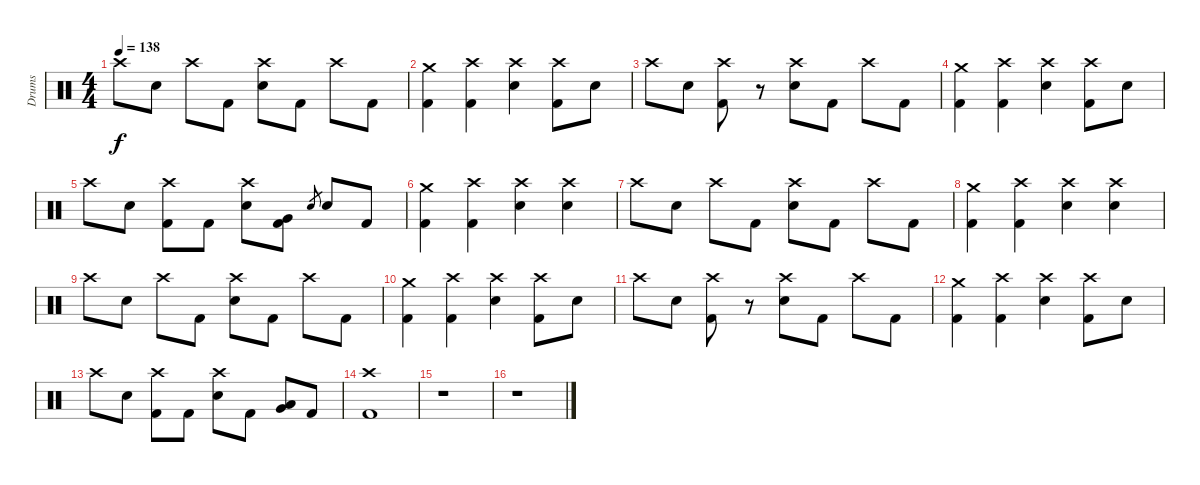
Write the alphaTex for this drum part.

\track ("Drums" "Drums") {instrument percussion}
\staff {score}
\articulation defaults
\ts (4 4)
\tempo 138
\clef neutral
\ks c "Crash high (hit)".8{dy f} "Electric Snare (hit)".8 "Crash high (hit)".8 "Kick (hit) 2".8
("Crash high (hit)" "Electric Snare (hit)").8 "Kick (hit) 2".8 "Crash high (hit)".8 "Kick (hit) 2".8 |
("Crash medium (hit)" "Kick (hit) 2").4 ("Crash high (hit)" "Kick (hit) 2").4 ("Crash high (hit)" "Electric Snare (hit)").4 ("Crash high (hit)" "Kick (hit) 2").8 "Electric Snare (hit)".8 |
"Crash high (hit)".8 "Electric Snare (hit)".8 ("Crash high (hit)" "Kick (hit) 2").8 r.8 ("Crash high (hit)" "Electric Snare (hit)").8 "Kick (hit) 2".8 "Crash high (hit)".8 "Kick (hit) 2".8 |
("Crash medium (hit)" "Kick (hit) 2").4 ("Crash high (hit)" "Kick (hit) 2").4 ("Crash high (hit)" "Electric Snare (hit)").4 ("Crash high (hit)" "Kick (hit) 2").8 "Electric Snare (hit)".8 |
"Crash high (hit)".8 "Electric Snare (hit)".8 ("Crash high (hit)" "Kick (hit) 2").8 "Kick (hit) 2".8 ("Crash high (hit)" "Electric Snare (hit)").8 ("Very Low Tom (hit)" "Kick (hit) 2").8 "Electric Snare (hit)".8{gr} "Electric Snare (hit)".8 "Kick (hit) 2".8 |
("Crash medium (hit)" "Kick (hit) 2").4 ("Crash high (hit)" "Kick (hit) 2").4 ("Crash high (hit)" "Electric Snare (hit)").4 ("Crash high (hit)" "Electric Snare (hit)").4 |
"Crash high (hit)".8 "Electric Snare (hit)".8 "Crash high (hit)".8 "Kick (hit) 2".8 ("Crash high (hit)" "Electric Snare (hit)").8 "Kick (hit) 2".8 "Crash high (hit)".8 "Kick (hit) 2".8 |
("Crash medium (hit)" "Kick (hit) 2").4 ("Crash high (hit)" "Kick (hit) 2").4 ("Crash high (hit)" "Electric Snare (hit)").4 ("Crash high (hit)" "Electric Snare (hit)").4 |
"Crash high (hit)".8 "Electric Snare (hit)".8 "Crash high (hit)".8 "Kick (hit) 2".8 ("Crash high (hit)" "Electric Snare (hit)").8 "Kick (hit) 2".8 "Crash high (hit)".8 "Kick (hit) 2".8 |
("Crash medium (hit)" "Kick (hit) 2").4 ("Crash high (hit)" "Kick (hit) 2").4 ("Crash high (hit)" "Electric Snare (hit)").4 ("Crash high (hit)" "Kick (hit) 2").8 "Electric Snare (hit)".8 |
"Crash high (hit)".8 "Electric Snare (hit)".8 ("Crash high (hit)" "Kick (hit) 2").8 r.8 ("Crash high (hit)" "Electric Snare (hit)").8 "Kick (hit) 2".8 "Crash high (hit)".8 "Kick (hit) 2".8 |
("Crash medium (hit)" "Kick (hit) 2").4 ("Crash high (hit)" "Kick (hit) 2").4 ("Crash high (hit)" "Electric Snare (hit)").4 ("Crash high (hit)" "Kick (hit) 2").8 "Electric Snare (hit)".8 |
"Crash high (hit)".8 "Electric Snare (hit)".8 ("Crash high (hit)" "Kick (hit) 2").8 "Kick (hit) 2".8 ("Crash high (hit)" "Electric Snare (hit)").8 "Kick (hit) 2".8 ("Low Tom (hit)" "Very Low Tom (hit)").8 "Kick (hit) 2".8 |
("Crash high (hit)" "Kick (hit) 2").1 |
r.1 |
r.1
